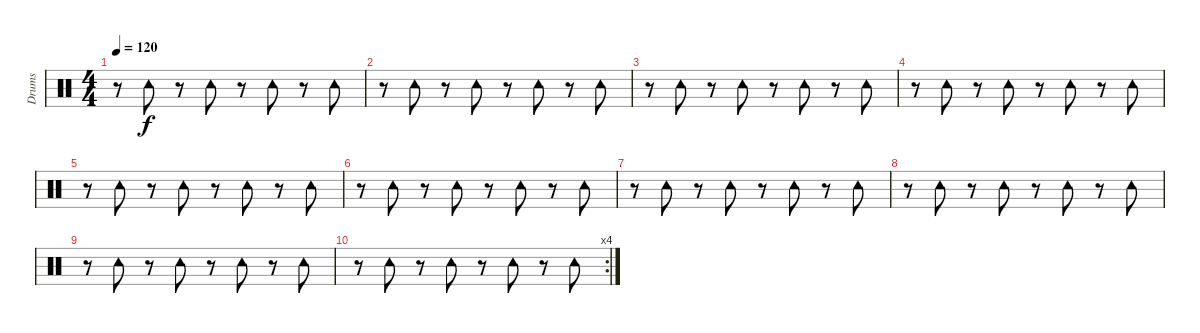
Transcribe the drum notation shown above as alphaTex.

\track ("Drums" "Drums") {instrument percussion}
\staff {score}
\articulation defaults
\ts (4 4)
\tempo 120
\clef neutral
\ks c
r.8{dy f} "Tambourine (hit)".8 r.8 "Tambourine (hit)".8 r.8 "Tambourine (hit)".8 r.8 "Tambourine (hit)".8 |
r.8 "Tambourine (hit)".8 r.8 "Tambourine (hit)".8 r.8 "Tambourine (hit)".8 r.8 "Tambourine (hit)".8 |
r.8 "Tambourine (hit)".8 r.8 "Tambourine (hit)".8 r.8 "Tambourine (hit)".8 r.8 "Tambourine (hit)".8 |
r.8 "Tambourine (hit)".8 r.8 "Tambourine (hit)".8 r.8 "Tambourine (hit)".8 r.8 "Tambourine (hit)".8 |
r.8 "Tambourine (hit)".8 r.8 "Tambourine (hit)".8 r.8 "Tambourine (hit)".8 r.8 "Tambourine (hit)".8 |
r.8 "Tambourine (hit)".8 r.8 "Tambourine (hit)".8 r.8 "Tambourine (hit)".8 r.8 "Tambourine (hit)".8 |
r.8 "Tambourine (hit)".8 r.8 "Tambourine (hit)".8 r.8 "Tambourine (hit)".8 r.8 "Tambourine (hit)".8 |
r.8 "Tambourine (hit)".8 r.8 "Tambourine (hit)".8 r.8 "Tambourine (hit)".8 r.8 "Tambourine (hit)".8 |
r.8 "Tambourine (hit)".8 r.8 "Tambourine (hit)".8 r.8 "Tambourine (hit)".8 r.8 "Tambourine (hit)".8 |
\rc 4
r.8 "Tambourine (hit)".8 r.8 "Tambourine (hit)".8 r.8 "Tambourine (hit)".8 r.8 "Tambourine (hit)".8
